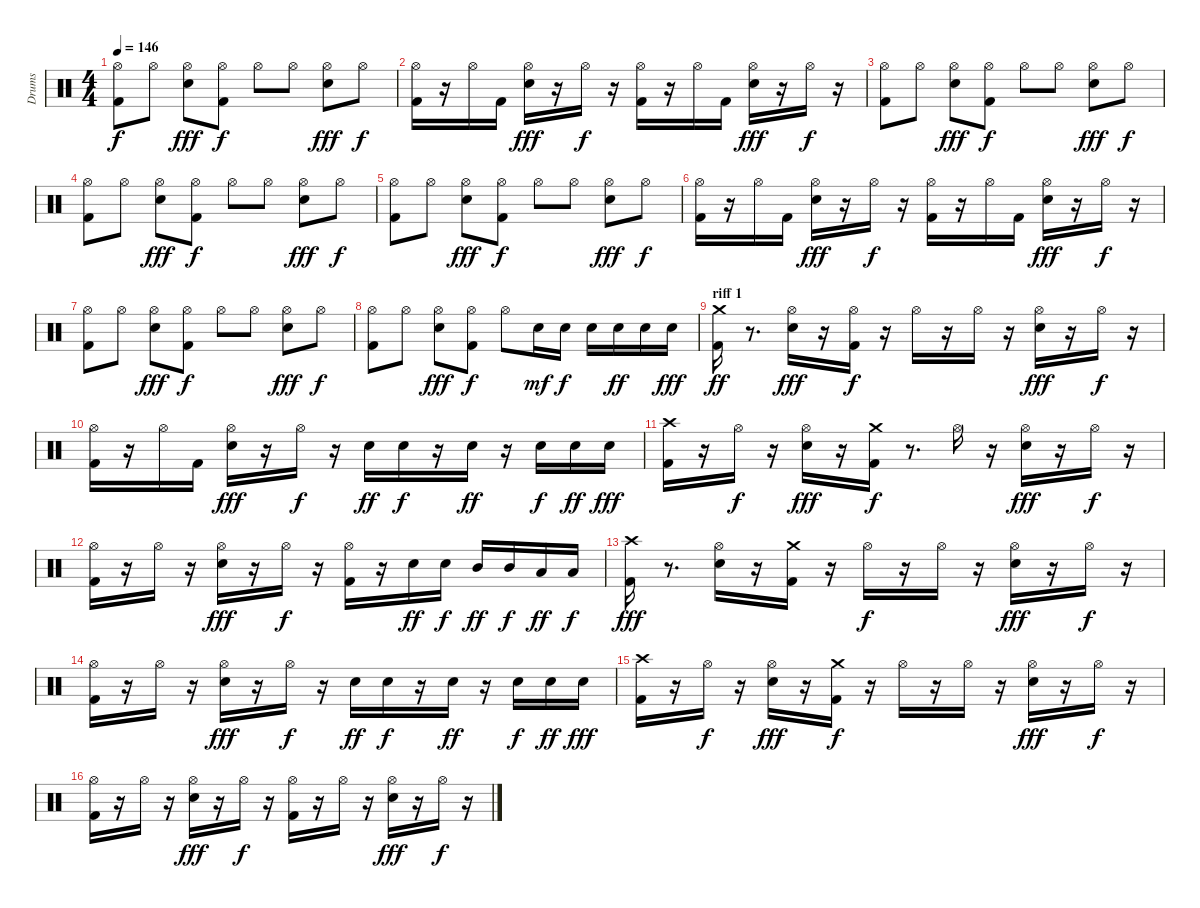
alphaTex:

\track ("Drums" "Drums") {instrument percussion}
\staff {score}
\articulation defaults
\ts (4 4)
\tempo 146
\clef neutral
\ks c
("Kick (hit) 2" "Hi-Hat (open)").8{dy f} "Hi-Hat (open)".8 ("Snare (hit) 2" "Hi-Hat (open)").8{dy fff} ("Kick (hit) 2" "Hi-Hat (open)").8{dy f} "Hi-Hat (open)".8 "Hi-Hat (open)".8 ("Snare (hit) 2" "Hi-Hat (open)").8{dy fff} "Hi-Hat (open)".8{dy f} |
("Kick (hit) 2" "Hi-Hat (open)").16 r.16 "Hi-Hat (open)".16 "Kick (hit) 2".16 ("Snare (hit) 2" "Hi-Hat (open)").16{dy fff} r.16 "Hi-Hat (open)".16{dy f} r.16 ("Kick (hit) 2" "Hi-Hat (open)").16 r.16 "Hi-Hat (open)".16 "Kick (hit) 2".16 ("Snare (hit) 2" "Hi-Hat (open)").16{dy fff} r.16 "Hi-Hat (open)".16{dy f} r.16 |
("Kick (hit) 2" "Hi-Hat (open)").8 "Hi-Hat (open)".8 ("Snare (hit) 2" "Hi-Hat (open)").8{dy fff} ("Kick (hit) 2" "Hi-Hat (open)").8{dy f} "Hi-Hat (open)".8 "Hi-Hat (open)".8 ("Snare (hit) 2" "Hi-Hat (open)").8{dy fff} "Hi-Hat (open)".8{dy f} |
("Kick (hit) 2" "Hi-Hat (open)").8 "Hi-Hat (open)".8 ("Snare (hit) 2" "Hi-Hat (open)").8{dy fff} ("Kick (hit) 2" "Hi-Hat (open)").8{dy f} "Hi-Hat (open)".8 "Hi-Hat (open)".8 ("Snare (hit) 2" "Hi-Hat (open)").8{dy fff} "Hi-Hat (open)".8{dy f} |
("Kick (hit) 2" "Hi-Hat (open)").8 "Hi-Hat (open)".8 ("Snare (hit) 2" "Hi-Hat (open)").8{dy fff} ("Kick (hit) 2" "Hi-Hat (open)").8{dy f} "Hi-Hat (open)".8 "Hi-Hat (open)".8 ("Snare (hit) 2" "Hi-Hat (open)").8{dy fff} "Hi-Hat (open)".8{dy f} |
("Kick (hit) 2" "Hi-Hat (open)").16 r.16 "Hi-Hat (open)".16 "Kick (hit) 2".16 ("Snare (hit) 2" "Hi-Hat (open)").16{dy fff} r.16 "Hi-Hat (open)".16{dy f} r.16 ("Kick (hit) 2" "Hi-Hat (open)").16 r.16 "Hi-Hat (open)".16 "Kick (hit) 2".16 ("Snare (hit) 2" "Hi-Hat (open)").16{dy fff} r.16 "Hi-Hat (open)".16{dy f} r.16 |
("Kick (hit) 2" "Hi-Hat (open)").8 "Hi-Hat (open)".8 ("Snare (hit) 2" "Hi-Hat (open)").8{dy fff} ("Kick (hit) 2" "Hi-Hat (open)").8{dy f} "Hi-Hat (open)".8 "Hi-Hat (open)".8 ("Snare (hit) 2" "Hi-Hat (open)").8{dy fff} "Hi-Hat (open)".8{dy f} |
("Kick (hit) 2" "Hi-Hat (open)").8 "Hi-Hat (open)".8 ("Snare (hit) 2" "Hi-Hat (open)").8{dy fff} ("Kick (hit) 2" "Hi-Hat (open)").8{dy f} "Hi-Hat (open)".8 "Snare (hit) 2".16{dy mf} "Snare (hit) 2".16{dy f} "Snare (hit) 2".16 "Snare (hit) 2".16{dy ff} "Snare (hit) 2".16 "Snare (hit) 2".16{dy fff} |
\section ("" "riff 1")
("Crash medium (hit)" "Kick (hit) 2").16{dy ff} r.8{d} ("Snare (hit) 2" "Hi-Hat (open)").16{dy fff} r.16 ("Kick (hit) 2" "Hi-Hat (open)").16{dy f} r.16 "Hi-Hat (open)".16 r.16 "Hi-Hat (open)".16 r.16 ("Snare (hit) 2" "Hi-Hat (open)").16{dy fff} r.16 "Hi-Hat (open)".16{dy f} r.16 |
("Kick (hit) 2" "Hi-Hat (open)").16 r.16 "Hi-Hat (open)".16 "Kick (hit) 2".16 ("Snare (hit) 2" "Hi-Hat (open)").16{dy fff} r.16 "Hi-Hat (open)".16{dy f} r.16 "Snare (hit) 2".16{dy ff} "Snare (hit) 2".16{dy f} r.16 "Snare (hit) 2".16{dy ff} r.16 "Snare (hit) 2".16{dy f} "Snare (hit) 2".16{dy ff} "Snare (hit) 2".16{dy fff} |
("Kick (hit) 2" "Crash high (hit)").16 r.16 "Hi-Hat (open)".16{dy f} r.16 ("Snare (hit) 2" "Hi-Hat (open)").16{dy fff} r.16 ("Kick (hit) 2" "Crash medium (hit)").16{dy f} r.8{d} "Hi-Hat (open)".16 r.16 ("Snare (hit) 2" "Hi-Hat (open)").16{dy fff} r.16 "Hi-Hat (open)".16{dy f} r.16 |
("Kick (hit) 2" "Hi-Hat (open)").16 r.16 "Hi-Hat (open)".16 r.16 ("Snare (hit) 2" "Hi-Hat (open)").16{dy fff} r.16 "Hi-Hat (open)".16{dy f} r.16 ("Kick (hit) 2" "Hi-Hat (open)").16 r.16 "Snare (hit) 2".16{dy ff} "Snare (hit) 2".16{dy f} "Mid Tom (hit)".16{dy ff} "Mid Tom (hit)".16{dy f} "Low Tom (hit)".16{dy ff} "Low Tom (hit)".16{dy f} |
("Kick (hit) 2" "Crash high (hit)").16{dy fff} r.8{d} ("Snare (hit) 2" "Hi-Hat (open)").16 r.16 ("Kick (hit) 2" "Crash medium (hit)").16 r.16 "Hi-Hat (open)".16{dy f} r.16 "Hi-Hat (open)".16 r.16 ("Snare (hit) 2" "Hi-Hat (open)").16{dy fff} r.16 "Hi-Hat (open)".16{dy f} r.16 |
("Kick (hit) 2" "Hi-Hat (open)").16 r.16 "Hi-Hat (open)".16 r.16 ("Snare (hit) 2" "Hi-Hat (open)").16{dy fff} r.16 "Hi-Hat (open)".16{dy f} r.16 "Snare (hit) 2".16{dy ff} "Snare (hit) 2".16{dy f} r.16 "Snare (hit) 2".16{dy ff} r.16 "Snare (hit) 2".16{dy f} "Snare (hit) 2".16{dy ff} "Snare (hit) 2".16{dy fff} |
("Kick (hit) 2" "Crash high (hit)").16 r.16 "Hi-Hat (open)".16{dy f} r.16 ("Snare (hit) 2" "Hi-Hat (open)").16{dy fff} r.16 ("Kick (hit) 2" "Crash medium (hit)").16{dy f} r.16 "Hi-Hat (open)".16 r.16 "Hi-Hat (open)".16 r.16 ("Snare (hit) 2" "Hi-Hat (open)").16{dy fff} r.16 "Hi-Hat (open)".16{dy f} r.16 |
("Kick (hit) 2" "Hi-Hat (open)").16 r.16 "Hi-Hat (open)".16 r.16 ("Snare (hit) 2" "Hi-Hat (open)").16{dy fff} r.16 "Hi-Hat (open)".16{dy f} r.16 ("Kick (hit) 2" "Hi-Hat (open)").16 r.16 "Hi-Hat (open)".16 r.16 ("Snare (hit) 2" "Hi-Hat (open)").16{dy fff} r.16 "Hi-Hat (open)".16{dy f} r.16
